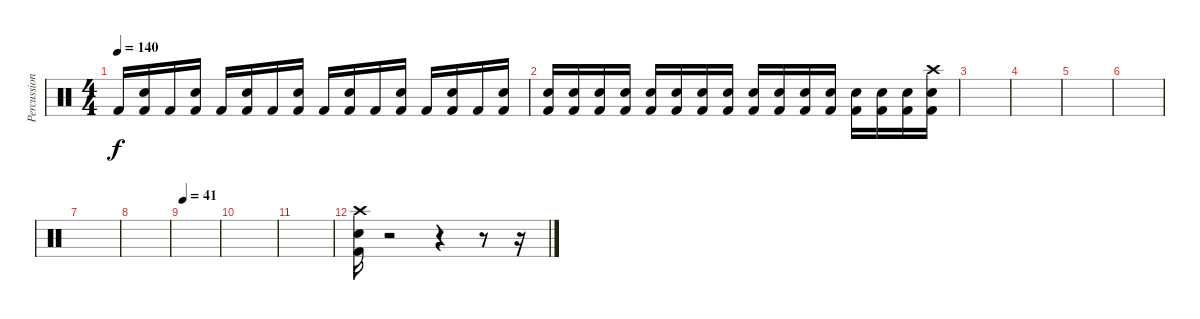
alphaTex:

\track ("Percussion" "Percussion") {instrument percussion}
\staff {score}
\articulation defaults
\ts (4 4)
\tempo 140
\clef neutral
\ks c "Kick (hit) 2".16{dy f}
("Electric Snare (hit)" "Kick (hit) 2").16 "Kick (hit) 2".16 ("Electric Snare (hit)" "Kick (hit) 2").16 "Kick (hit) 2".16 ("Electric Snare (hit)" "Kick (hit) 2").16 "Kick (hit) 2".16 ("Electric Snare (hit)" "Kick (hit) 2").16 "Kick (hit) 2".16 ("Electric Snare (hit)" "Kick (hit) 2").16 "Kick (hit) 2".16 ("Electric Snare (hit)" "Kick (hit) 2").16 "Kick (hit) 2".16 ("Electric Snare (hit)" "Kick (hit) 2").16 "Kick (hit) 2".16 ("Electric Snare (hit)" "Kick (hit) 2").16 |
("Electric Snare (hit)" "Kick (hit) 2").16 ("Electric Snare (hit)" "Kick (hit) 2").16 ("Electric Snare (hit)" "Kick (hit) 2").16 ("Electric Snare (hit)" "Kick (hit) 2").16 ("Electric Snare (hit)" "Kick (hit) 2").16 ("Electric Snare (hit)" "Kick (hit) 2").16 ("Electric Snare (hit)" "Kick (hit) 2").16 ("Electric Snare (hit)" "Kick (hit) 2").16 ("Electric Snare (hit)" "Kick (hit) 2").16 ("Electric Snare (hit)" "Kick (hit) 2").16 ("Electric Snare (hit)" "Kick (hit) 2").16 ("Electric Snare (hit)" "Kick (hit) 2").16 ("Electric Snare (hit)" "Kick (hit) 2").16 ("Electric Snare (hit)" "Kick (hit) 2").16 ("Electric Snare (hit)" "Kick (hit) 2").16 ("Crash high (hit)" "Electric Snare (hit)" "Kick (hit) 2").16 |
|
|
|
|
|
|
\tempo 41
|
|
|
("Crash high (hit)" "Electric Snare (hit)" "Kick (hit) 2").16 r.2 r.4 r.8 r.16
